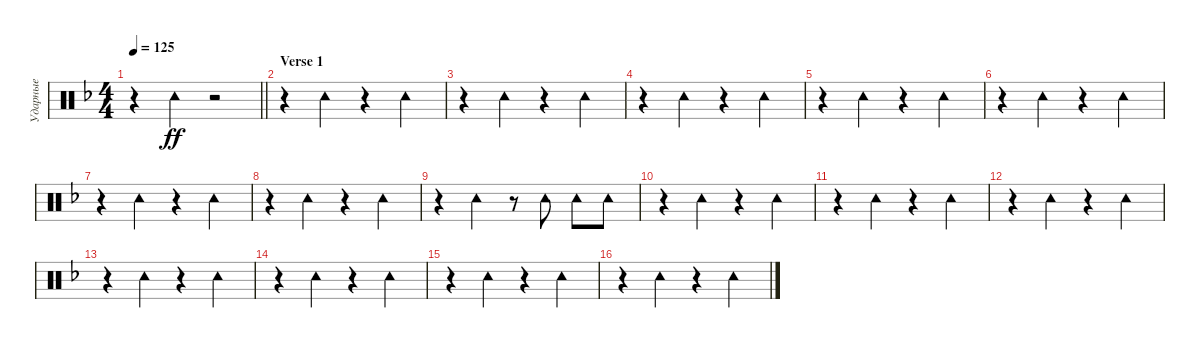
\track ("Ударные" "Ударные") {instrument percussion}
\staff {score}
\articulation defaults
\ts (4 4)
\tempo 125
\clef neutral
\barLineRight lightlight
\ks dminor
r.4{dy ff} "Tambourine (hit)".4 r.2 |
\section ("" "Verse 1")
r.4 "Tambourine (hit)".4 r.4 "Tambourine (hit)".4 |
r.4 "Tambourine (hit)".4 r.4 "Tambourine (hit)".4 |
r.4 "Tambourine (hit)".4 r.4 "Tambourine (hit)".4 |
r.4 "Tambourine (hit)".4 r.4 "Tambourine (hit)".4 |
r.4 "Tambourine (hit)".4 r.4 "Tambourine (hit)".4 |
r.4 "Tambourine (hit)".4 r.4 "Tambourine (hit)".4 |
r.4 "Tambourine (hit)".4 r.4 "Tambourine (hit)".4 |
r.4 "Tambourine (hit)".4 r.8 "Tambourine (hit)".8 "Tambourine (hit)".8 "Tambourine (hit)".8 |
r.4 "Tambourine (hit)".4 r.4 "Tambourine (hit)".4 |
r.4 "Tambourine (hit)".4 r.4 "Tambourine (hit)".4 |
r.4 "Tambourine (hit)".4 r.4 "Tambourine (hit)".4 |
r.4 "Tambourine (hit)".4 r.4 "Tambourine (hit)".4 |
r.4 "Tambourine (hit)".4 r.4 "Tambourine (hit)".4 |
r.4 "Tambourine (hit)".4 r.4 "Tambourine (hit)".4 |
r.4 "Tambourine (hit)".4 r.4 "Tambourine (hit)".4
